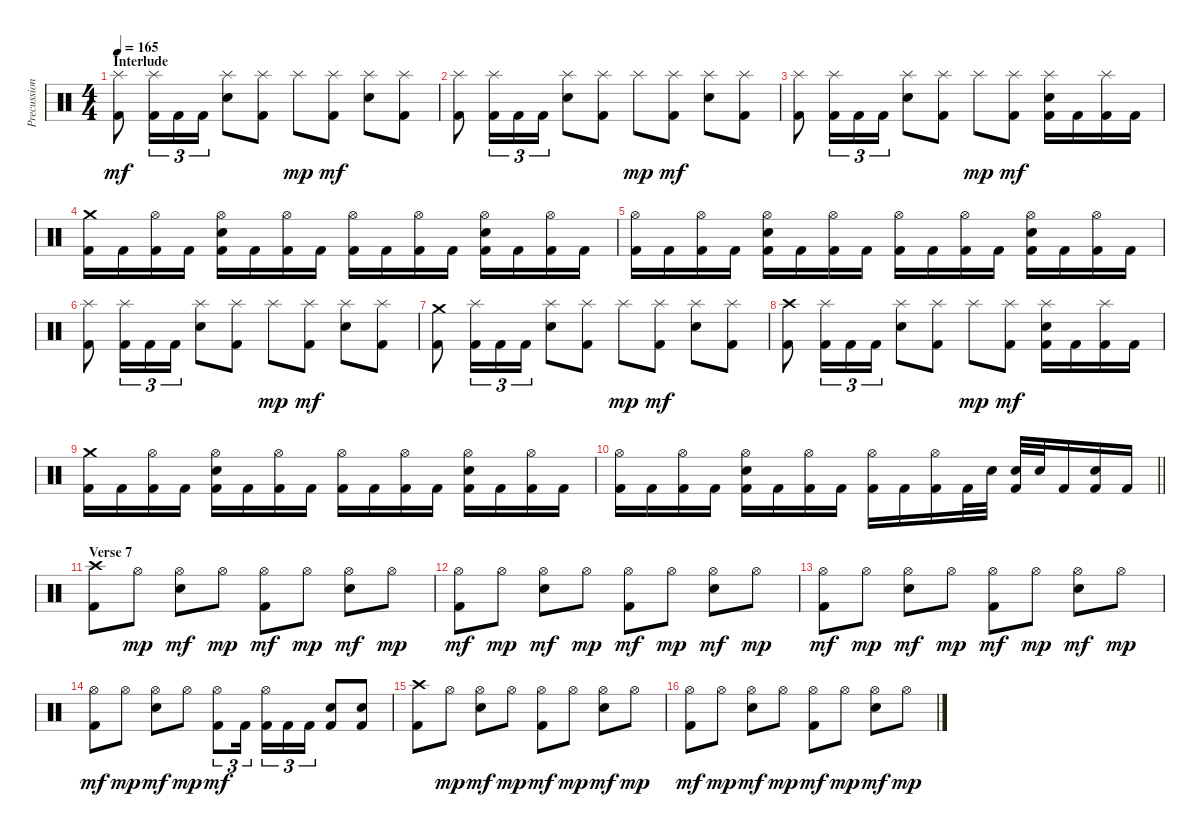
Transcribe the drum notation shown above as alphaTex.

\track ("Precussion" "Precussion") {instrument percussion}
\staff {score}
\articulation defaults
\ts (4 4)
\section ("" "Interlude")
\tempo 165
\clef neutral
\ks c
("Splash (hit)" "Kick (hit) 2").8{dy mf} ("Splash (hit)" "Kick (hit) 2").16{tu (3 2)} "Kick (hit) 2".16{tu (3 2)} "Kick (hit) 2".16{tu (3 2)} ("Splash (hit)" "Electric Snare (hit)").8 ("Splash (hit)" "Kick (hit) 2").8 "Splash (hit)".8{dy mp} ("Splash (hit)" "Kick (hit) 2").8{dy mf} ("Splash (hit)" "Electric Snare (hit)").8 ("Splash (hit)" "Kick (hit) 2").8 |
("Splash (hit)" "Kick (hit) 2").8 ("Splash (hit)" "Kick (hit) 2").16{tu (3 2)} "Kick (hit) 2".16{tu (3 2)} "Kick (hit) 2".16{tu (3 2)} ("Splash (hit)" "Electric Snare (hit)").8 ("Splash (hit)" "Kick (hit) 2").8 "Splash (hit)".8{dy mp} ("Splash (hit)" "Kick (hit) 2").8{dy mf} ("Splash (hit)" "Electric Snare (hit)").8 ("Splash (hit)" "Kick (hit) 2").8 |
("Splash (hit)" "Kick (hit) 2").8 ("Splash (hit)" "Kick (hit) 2").16{tu (3 2)} "Kick (hit) 2".16{tu (3 2)} "Kick (hit) 2".16{tu (3 2)} ("Splash (hit)" "Electric Snare (hit)").8 ("Splash (hit)" "Kick (hit) 2").8 "Splash (hit)".8{dy mp} ("Splash (hit)" "Kick (hit) 2").8{dy mf} ("Splash (hit)" "Electric Snare (hit)" "Kick (hit) 2").16 "Kick (hit) 2".16 ("Splash (hit)" "Kick (hit) 2").16 "Kick (hit) 2".16 |
("Crash medium (hit)" "Kick (hit) 2").16 "Kick (hit) 2".16 ("Hi-Hat (open)" "Kick (hit) 2").16 "Kick (hit) 2".16 ("Hi-Hat (open)" "Electric Snare (hit)" "Kick (hit) 2").16 "Kick (hit) 2".16 ("Hi-Hat (open)" "Kick (hit) 2").16 "Kick (hit) 2".16 ("Hi-Hat (open)" "Kick (hit) 2").16 "Kick (hit) 2".16 ("Hi-Hat (open)" "Kick (hit) 2").16 "Kick (hit) 2".16 ("Hi-Hat (open)" "Electric Snare (hit)" "Kick (hit) 2").16 "Kick (hit) 2".16 ("Hi-Hat (open)" "Kick (hit) 2").16 "Kick (hit) 2".16 |
("Hi-Hat (open)" "Kick (hit) 2").16 "Kick (hit) 2".16 ("Hi-Hat (open)" "Kick (hit) 2").16 "Kick (hit) 2".16 ("Hi-Hat (open)" "Electric Snare (hit)" "Kick (hit) 2").16 "Kick (hit) 2".16 ("Hi-Hat (open)" "Kick (hit) 2").16 "Kick (hit) 2".16 ("Hi-Hat (open)" "Kick (hit) 2").16 "Kick (hit) 2".16 ("Hi-Hat (open)" "Kick (hit) 2").16 "Kick (hit) 2".16 ("Hi-Hat (open)" "Electric Snare (hit)" "Kick (hit) 2").16 "Kick (hit) 2".16 ("Hi-Hat (open)" "Kick (hit) 2").16 "Kick (hit) 2".16 |
("Splash (hit)" "Kick (hit) 2").8 ("Splash (hit)" "Kick (hit) 2").16{tu (3 2)} "Kick (hit) 2".16{tu (3 2)} "Kick (hit) 2".16{tu (3 2)} ("Splash (hit)" "Electric Snare (hit)").8 ("Splash (hit)" "Kick (hit) 2").8 "Splash (hit)".8{dy mp} ("Splash (hit)" "Kick (hit) 2").8{dy mf} ("Splash (hit)" "Electric Snare (hit)").8 ("Splash (hit)" "Kick (hit) 2").8 |
("Crash medium (hit)" "Kick (hit) 2").8 ("Splash (hit)" "Kick (hit) 2").16{tu (3 2)} "Kick (hit) 2".16{tu (3 2)} "Kick (hit) 2".16{tu (3 2)} ("Splash (hit)" "Electric Snare (hit)").8 ("Splash (hit)" "Kick (hit) 2").8 "Splash (hit)".8{dy mp} ("Splash (hit)" "Kick (hit) 2").8{dy mf} ("Splash (hit)" "Electric Snare (hit)").8 ("Splash (hit)" "Kick (hit) 2").8 |
("Crash high (hit)" "Kick (hit) 2").8 ("Splash (hit)" "Kick (hit) 2").16{tu (3 2)} "Kick (hit) 2".16{tu (3 2)} "Kick (hit) 2".16{tu (3 2)} ("Splash (hit)" "Electric Snare (hit)").8 ("Splash (hit)" "Kick (hit) 2").8 "Splash (hit)".8{dy mp} ("Splash (hit)" "Kick (hit) 2").8{dy mf} ("Splash (hit)" "Electric Snare (hit)" "Kick (hit) 2").16 "Kick (hit) 2".16 ("Splash (hit)" "Kick (hit) 2").16 "Kick (hit) 2".16 |
("Crash medium (hit)" "Kick (hit) 2").16 "Kick (hit) 2".16 ("Hi-Hat (open)" "Kick (hit) 2").16 "Kick (hit) 2".16 ("Hi-Hat (open)" "Electric Snare (hit)" "Kick (hit) 2").16 "Kick (hit) 2".16 ("Hi-Hat (open)" "Kick (hit) 2").16 "Kick (hit) 2".16 ("Hi-Hat (open)" "Kick (hit) 2").16 "Kick (hit) 2".16 ("Hi-Hat (open)" "Kick (hit) 2").16 "Kick (hit) 2".16 ("Hi-Hat (open)" "Electric Snare (hit)" "Kick (hit) 2").16 "Kick (hit) 2".16 ("Hi-Hat (open)" "Kick (hit) 2").16 "Kick (hit) 2".16 |
\barLineRight lightlight
("Hi-Hat (open)" "Kick (hit) 2").16 "Kick (hit) 2".16 ("Hi-Hat (open)" "Kick (hit) 2").16 "Kick (hit) 2".16 ("Hi-Hat (open)" "Electric Snare (hit)" "Kick (hit) 2").16 "Kick (hit) 2".16 ("Hi-Hat (open)" "Kick (hit) 2").16 "Kick (hit) 2".16 ("Hi-Hat (open)" "Kick (hit) 2").16 "Kick (hit) 2".16 ("Hi-Hat (open)" "Kick (hit) 2").16 "Kick (hit) 2".32 "Electric Snare (hit)".32 ("Electric Snare (hit)" "Kick (hit) 2").32 "Electric Snare (hit)".32 "Kick (hit) 2".16 ("Electric Snare (hit)" "Kick (hit) 2").16 "Kick (hit) 2".16 |
\section ("" "Verse 7")
("Crash high (hit)" "Kick (hit) 2").8 "Hi-Hat (open)".8{dy mp} ("Hi-Hat (open)" "Electric Snare (hit)").8{dy mf} "Hi-Hat (open)".8{dy mp} ("Hi-Hat (open)" "Kick (hit) 2").8{dy mf} "Hi-Hat (open)".8{dy mp} ("Hi-Hat (open)" "Electric Snare (hit)").8{dy mf} "Hi-Hat (open)".8{dy mp} |
("Hi-Hat (open)" "Kick (hit) 2").8{dy mf} "Hi-Hat (open)".8{dy mp} ("Hi-Hat (open)" "Electric Snare (hit)").8{dy mf} "Hi-Hat (open)".8{dy mp} ("Hi-Hat (open)" "Kick (hit) 2").8{dy mf} "Hi-Hat (open)".8{dy mp} ("Hi-Hat (open)" "Electric Snare (hit)").8{dy mf} "Hi-Hat (open)".8{dy mp} |
("Hi-Hat (open)" "Kick (hit) 2").8{dy mf} "Hi-Hat (open)".8{dy mp} ("Hi-Hat (open)" "Electric Snare (hit)").8{dy mf} "Hi-Hat (open)".8{dy mp} ("Hi-Hat (open)" "Kick (hit) 2").8{dy mf} "Hi-Hat (open)".8{dy mp} ("Hi-Hat (open)" "Electric Snare (hit)").8{dy mf} "Hi-Hat (open)".8{dy mp} |
("Hi-Hat (open)" "Kick (hit) 2").8{dy mf} "Hi-Hat (open)".8{dy mp} ("Hi-Hat (open)" "Electric Snare (hit)").8{dy mf} "Hi-Hat (open)".8{dy mp} ("Hi-Hat (open)" "Kick (hit) 2").8{tu (3 2) dy mf} "Kick (hit) 2".16{tu (3 2) beam splitsecondary} ("Hi-Hat (open)" "Kick (hit) 2").16{tu (3 2)} "Kick (hit) 2".16{tu (3 2)} "Kick (hit) 2".16{tu (3 2)} ("Electric Snare (hit)" "Kick (hit) 2").8 ("Electric Snare (hit)" "Kick (hit) 2").8 |
("Crash high (hit)" "Kick (hit) 2").8 "Hi-Hat (open)".8{dy mp} ("Hi-Hat (open)" "Electric Snare (hit)").8{dy mf} "Hi-Hat (open)".8{dy mp} ("Hi-Hat (open)" "Kick (hit) 2").8{dy mf} "Hi-Hat (open)".8{dy mp} ("Hi-Hat (open)" "Electric Snare (hit)").8{dy mf} "Hi-Hat (open)".8{dy mp} |
("Hi-Hat (open)" "Kick (hit) 2").8{dy mf} "Hi-Hat (open)".8{dy mp} ("Hi-Hat (open)" "Electric Snare (hit)").8{dy mf} "Hi-Hat (open)".8{dy mp} ("Hi-Hat (open)" "Kick (hit) 2").8{dy mf} "Hi-Hat (open)".8{dy mp} ("Hi-Hat (open)" "Electric Snare (hit)").8{dy mf} "Hi-Hat (open)".8{dy mp}
